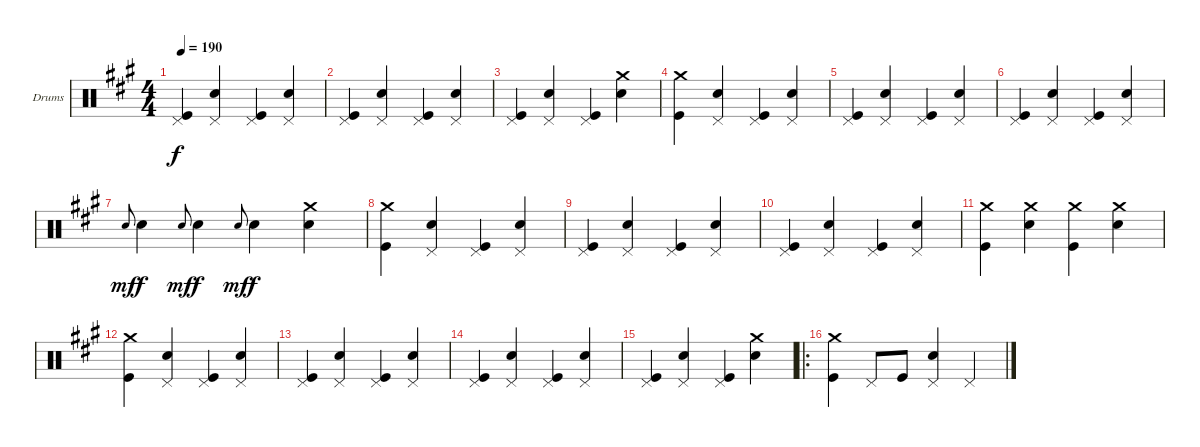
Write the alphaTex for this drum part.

\bracketExtendMode groupsimilarinstruments
\firstSystemTrackNameOrientation horizontal
\otherSystemsTrackNameOrientation horizontal
\track ("Drums" "Drums") {instrument percussion}
\staff {score}
\articulation defaults
\ts (4 4)
\tempo 190
\clef neutral
\ks a
("Pedal Hi-Hat (hit)" "Kick (hit)").4{dy f} ("Pedal Hi-Hat (hit)" "Snare (hit) 2").4 ("Pedal Hi-Hat (hit)" "Kick (hit)").4 ("Pedal Hi-Hat (hit)" "Snare (hit) 2").4 |
("Pedal Hi-Hat (hit)" "Kick (hit)").4 ("Pedal Hi-Hat (hit)" "Snare (hit) 2").4 ("Pedal Hi-Hat (hit)" "Kick (hit)").4 ("Pedal Hi-Hat (hit)" "Snare (hit) 2").4 |
("Pedal Hi-Hat (hit)" "Kick (hit)").4 ("Pedal Hi-Hat (hit)" "Snare (hit) 2").4 ("Pedal Hi-Hat (hit)" "Kick (hit)").4 ("Crash medium (hit)" "Snare (hit) 2").4 |
("Crash medium (hit)" "Kick (hit)").4 ("Pedal Hi-Hat (hit)" "Snare (hit) 2").4 ("Pedal Hi-Hat (hit)" "Kick (hit)").4 ("Pedal Hi-Hat (hit)" "Snare (hit) 2").4 |
("Pedal Hi-Hat (hit)" "Kick (hit)").4 ("Pedal Hi-Hat (hit)" "Snare (hit) 2").4 ("Pedal Hi-Hat (hit)" "Kick (hit)").4 ("Pedal Hi-Hat (hit)" "Snare (hit) 2").4 |
("Pedal Hi-Hat (hit)" "Kick (hit)").4 ("Pedal Hi-Hat (hit)" "Snare (hit) 2").4 ("Pedal Hi-Hat (hit)" "Kick (hit)").4 ("Pedal Hi-Hat (hit)" "Snare (hit) 2").4 |
"Snare (hit) 2".8{gr onbeat dy mf} "Snare (hit) 2".4{dy f} "Snare (hit) 2".8{gr onbeat dy mf} "Snare (hit) 2".4{dy f} "Snare (hit) 2".8{gr onbeat dy mf} "Snare (hit) 2".4{dy f} ("Crash medium (hit)" "Snare (hit) 2").4 |
("Crash medium (hit)" "Kick (hit)").4 ("Pedal Hi-Hat (hit)" "Snare (hit) 2").4 ("Pedal Hi-Hat (hit)" "Kick (hit)").4 ("Pedal Hi-Hat (hit)" "Snare (hit) 2").4 |
("Pedal Hi-Hat (hit)" "Kick (hit)").4 ("Pedal Hi-Hat (hit)" "Snare (hit) 2").4 ("Pedal Hi-Hat (hit)" "Kick (hit)").4 ("Pedal Hi-Hat (hit)" "Snare (hit) 2").4 |
("Pedal Hi-Hat (hit)" "Kick (hit)").4 ("Pedal Hi-Hat (hit)" "Snare (hit) 2").4 ("Pedal Hi-Hat (hit)" "Kick (hit)").4 ("Pedal Hi-Hat (hit)" "Snare (hit) 2").4 |
("Crash medium (hit)" "Kick (hit)").4 ("Crash medium (hit)" "Snare (hit) 2").4 ("Crash medium (hit)" "Kick (hit)").4 ("Crash medium (hit)" "Snare (hit) 2").4 |
("Crash medium (hit)" "Kick (hit)").4 ("Pedal Hi-Hat (hit)" "Snare (hit) 2").4 ("Pedal Hi-Hat (hit)" "Kick (hit)").4 ("Pedal Hi-Hat (hit)" "Snare (hit) 2").4 |
("Pedal Hi-Hat (hit)" "Kick (hit)").4 ("Pedal Hi-Hat (hit)" "Snare (hit) 2").4 ("Pedal Hi-Hat (hit)" "Kick (hit)").4 ("Pedal Hi-Hat (hit)" "Snare (hit) 2").4 |
("Pedal Hi-Hat (hit)" "Kick (hit)").4 ("Pedal Hi-Hat (hit)" "Snare (hit) 2").4 ("Pedal Hi-Hat (hit)" "Kick (hit)").4 ("Pedal Hi-Hat (hit)" "Snare (hit) 2").4 |
("Pedal Hi-Hat (hit)" "Kick (hit)").4 ("Pedal Hi-Hat (hit)" "Snare (hit) 2").4 ("Pedal Hi-Hat (hit)" "Kick (hit)").4 ("Crash medium (hit)" "Snare (hit) 2").4 |
\ro
("Crash medium (hit)" "Kick (hit)").4 "Pedal Hi-Hat (hit)".8 "Kick (hit)".8 ("Pedal Hi-Hat (hit)" "Snare (hit) 2").4 "Pedal Hi-Hat (hit)".4
